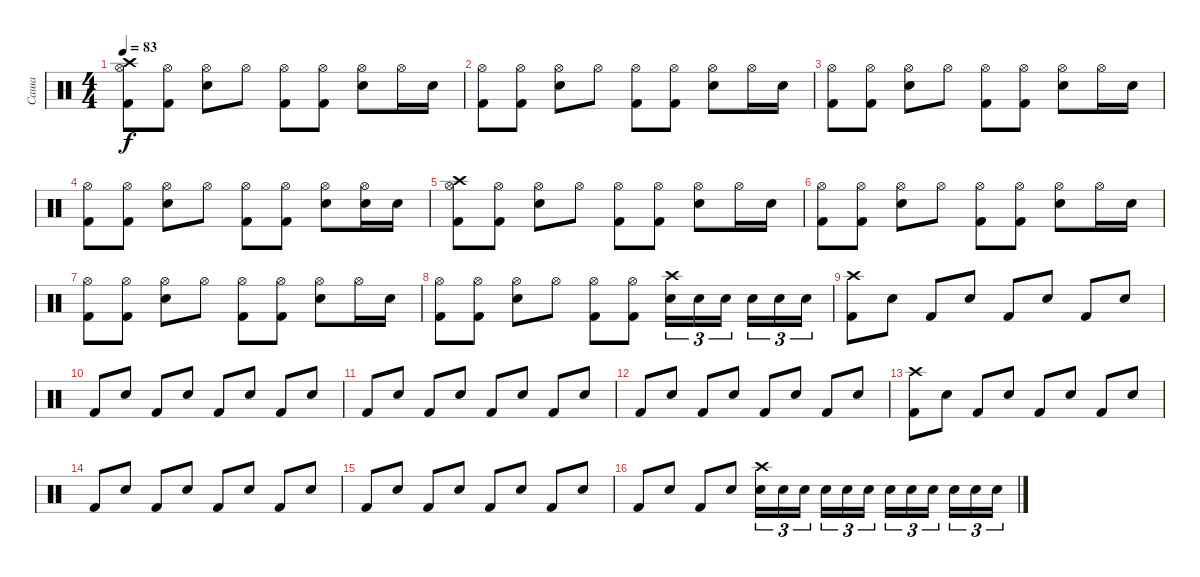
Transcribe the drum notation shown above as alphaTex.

\track ("Саша" "Саша") {instrument percussion}
\staff {score}
\articulation defaults
\ts (4 4)
\tempo 83
\clef neutral
\ks c
("Kick (hit) 2" "Crash high (hit)" "Hi-Hat (open)").8{dy f} ("Kick (hit) 2" "Hi-Hat (open)").8 ("Snare (hit) 2" "Hi-Hat (open)").8 "Hi-Hat (open)".8 ("Kick (hit) 2" "Hi-Hat (open)").8 ("Kick (hit) 2" "Hi-Hat (open)").8 ("Snare (hit) 2" "Hi-Hat (open)").8 "Hi-Hat (open)".16 "Snare (hit) 2".16 |
("Kick (hit) 2" "Hi-Hat (open)").8 ("Kick (hit) 2" "Hi-Hat (open)").8 ("Snare (hit) 2" "Hi-Hat (open)").8 "Hi-Hat (open)".8 ("Kick (hit) 2" "Hi-Hat (open)").8 ("Kick (hit) 2" "Hi-Hat (open)").8 ("Snare (hit) 2" "Hi-Hat (open)").8 "Hi-Hat (open)".16 "Snare (hit) 2".16 |
("Kick (hit) 2" "Hi-Hat (open)").8 ("Kick (hit) 2" "Hi-Hat (open)").8 ("Snare (hit) 2" "Hi-Hat (open)").8 "Hi-Hat (open)".8 ("Kick (hit) 2" "Hi-Hat (open)").8 ("Kick (hit) 2" "Hi-Hat (open)").8 ("Snare (hit) 2" "Hi-Hat (open)").8 "Hi-Hat (open)".16 "Snare (hit) 2".16 |
("Kick (hit) 2" "Hi-Hat (open)").8 ("Kick (hit) 2" "Hi-Hat (open)").8 ("Snare (hit) 2" "Hi-Hat (open)").8 "Hi-Hat (open)".8 ("Kick (hit) 2" "Hi-Hat (open)").8 ("Kick (hit) 2" "Hi-Hat (open)").8 ("Snare (hit) 2" "Hi-Hat (open)").8 ("Hi-Hat (open)" "Snare (hit) 2").16 "Snare (hit) 2".16 |
("Kick (hit) 2" "Crash high (hit)" "Hi-Hat (open)").8 ("Kick (hit) 2" "Hi-Hat (open)").8 ("Snare (hit) 2" "Hi-Hat (open)").8 "Hi-Hat (open)".8 ("Kick (hit) 2" "Hi-Hat (open)").8 ("Kick (hit) 2" "Hi-Hat (open)").8 ("Snare (hit) 2" "Hi-Hat (open)").8 "Hi-Hat (open)".16 "Snare (hit) 2".16 |
("Kick (hit) 2" "Hi-Hat (open)").8 ("Kick (hit) 2" "Hi-Hat (open)").8 ("Snare (hit) 2" "Hi-Hat (open)").8 "Hi-Hat (open)".8 ("Kick (hit) 2" "Hi-Hat (open)").8 ("Kick (hit) 2" "Hi-Hat (open)").8 ("Snare (hit) 2" "Hi-Hat (open)").8 "Hi-Hat (open)".16 "Snare (hit) 2".16 |
("Kick (hit) 2" "Hi-Hat (open)").8 ("Kick (hit) 2" "Hi-Hat (open)").8 ("Snare (hit) 2" "Hi-Hat (open)").8 "Hi-Hat (open)".8 ("Kick (hit) 2" "Hi-Hat (open)").8 ("Kick (hit) 2" "Hi-Hat (open)").8 ("Snare (hit) 2" "Hi-Hat (open)").8 "Hi-Hat (open)".16 "Snare (hit) 2".16 |
("Kick (hit) 2" "Hi-Hat (open)").8 ("Kick (hit) 2" "Hi-Hat (open)").8 ("Snare (hit) 2" "Hi-Hat (open)").8 "Hi-Hat (open)".8 ("Kick (hit) 2" "Hi-Hat (open)").8 ("Kick (hit) 2" "Hi-Hat (open)").8 ("Snare (hit) 2" "Crash high (hit)").16{tu (3 2)} "Snare (hit) 2".16{tu (3 2)} "Snare (hit) 2".16{tu (3 2) beam splitsecondary} "Snare (hit) 2".16{tu (3 2)} "Snare (hit) 2".16{tu (3 2)} "Snare (hit) 2".16{tu (3 2)} |
("Kick (hit) 2" "Crash high (hit)").8 "Snare (hit) 2".8 "Kick (hit) 2".8 "Snare (hit) 2".8 "Kick (hit) 2".8 "Snare (hit) 2".8 "Kick (hit) 2".8 "Snare (hit) 2".8 |
"Kick (hit) 2".8 "Snare (hit) 2".8 "Kick (hit) 2".8 "Snare (hit) 2".8 "Kick (hit) 2".8 "Snare (hit) 2".8 "Kick (hit) 2".8 "Snare (hit) 2".8 |
"Kick (hit) 2".8 "Snare (hit) 2".8 "Kick (hit) 2".8 "Snare (hit) 2".8 "Kick (hit) 2".8 "Snare (hit) 2".8 "Kick (hit) 2".8 "Snare (hit) 2".8 |
"Kick (hit) 2".8 "Snare (hit) 2".8 "Kick (hit) 2".8 "Snare (hit) 2".8 "Kick (hit) 2".8 "Snare (hit) 2".8 "Kick (hit) 2".8 "Snare (hit) 2".8 |
("Kick (hit) 2" "Crash high (hit)").8 "Snare (hit) 2".8 "Kick (hit) 2".8 "Snare (hit) 2".8 "Kick (hit) 2".8 "Snare (hit) 2".8 "Kick (hit) 2".8 "Snare (hit) 2".8 |
"Kick (hit) 2".8 "Snare (hit) 2".8 "Kick (hit) 2".8 "Snare (hit) 2".8 "Kick (hit) 2".8 "Snare (hit) 2".8 "Kick (hit) 2".8 "Snare (hit) 2".8 |
"Kick (hit) 2".8 "Snare (hit) 2".8 "Kick (hit) 2".8 "Snare (hit) 2".8 "Kick (hit) 2".8 "Snare (hit) 2".8 "Kick (hit) 2".8 "Snare (hit) 2".8 |
"Kick (hit) 2".8 "Snare (hit) 2".8 "Kick (hit) 2".8 "Snare (hit) 2".8 ("Snare (hit) 2" "Crash high (hit)").16{tu (3 2)} "Snare (hit) 2".16{tu (3 2)} "Snare (hit) 2".16{tu (3 2) beam splitsecondary} "Snare (hit) 2".16{tu (3 2)} "Snare (hit) 2".16{tu (3 2)} "Snare (hit) 2".16{tu (3 2)} "Snare (hit) 2".16{tu (3 2)} "Snare (hit) 2".16{tu (3 2)} "Snare (hit) 2".16{tu (3 2) beam splitsecondary} "Snare (hit) 2".16{tu (3 2)} "Snare (hit) 2".16{tu (3 2)} "Snare (hit) 2".16{tu (3 2)}
